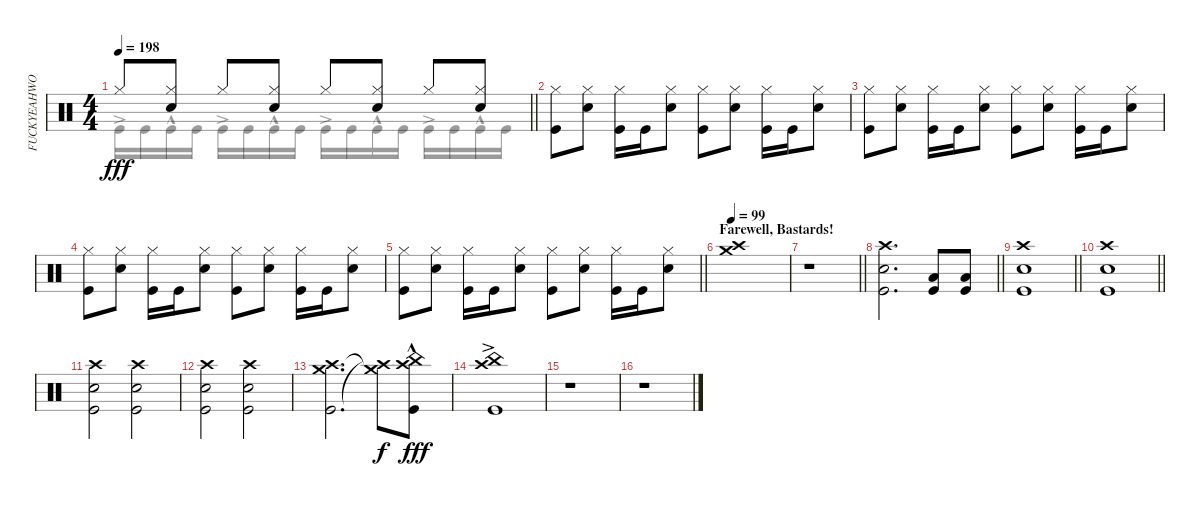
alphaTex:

\track ("FUCKYEAHWOOTDAVEMACKINTOSH!(Percussion)" "FUCKYEAHWO") {instrument percussion}
\staff {score}
\articulation defaults
\voice
\ts (4 4)
\tempo 198
\clef neutral
\barLineRight lightlight
\ks c "Hi-Hat (closed)".8{dy fff}
("Snare (hit) 2" "Hi-Hat (closed)").8 "Hi-Hat (closed)".8 ("Hi-Hat (closed)" "Snare (hit) 2").8 "Hi-Hat (closed)".8 ("Snare (hit) 2" "Hi-Hat (closed)").8 "Hi-Hat (closed)".8 ("Snare (hit) 2" "Hi-Hat (closed)").8 |
("Kick (hit)" "Hi-Hat (closed)").8 ("Snare (hit) 2" "Hi-Hat (closed)").8 ("Kick (hit)" "Hi-Hat (closed)").16 "Kick (hit)".16 ("Hi-Hat (closed)" "Snare (hit) 2").8 ("Kick (hit)" "Hi-Hat (closed)").8 ("Snare (hit) 2" "Hi-Hat (closed)").8 ("Kick (hit)" "Hi-Hat (closed)").16 "Kick (hit)".16 ("Snare (hit) 2" "Hi-Hat (closed)").8 |
("Kick (hit)" "Hi-Hat (closed)").8 ("Snare (hit) 2" "Hi-Hat (closed)").8 ("Kick (hit)" "Hi-Hat (closed)").16 "Kick (hit)".16 ("Hi-Hat (closed)" "Snare (hit) 2").8 ("Kick (hit)" "Hi-Hat (closed)").8 ("Snare (hit) 2" "Hi-Hat (closed)").8 ("Kick (hit)" "Hi-Hat (closed)").16 "Kick (hit)".16 ("Snare (hit) 2" "Hi-Hat (closed)").8 |
("Kick (hit)" "Hi-Hat (closed)").8 ("Snare (hit) 2" "Hi-Hat (closed)").8 ("Kick (hit)" "Hi-Hat (closed)").16 "Kick (hit)".16 ("Hi-Hat (closed)" "Snare (hit) 2").8 ("Kick (hit)" "Hi-Hat (closed)").8 ("Snare (hit) 2" "Hi-Hat (closed)").8 ("Kick (hit)" "Hi-Hat (closed)").16 "Kick (hit)".16 ("Snare (hit) 2" "Hi-Hat (closed)").8 |
\barLineRight lightlight
("Kick (hit)" "Hi-Hat (closed)").8 ("Snare (hit) 2" "Hi-Hat (closed)").8 ("Kick (hit)" "Hi-Hat (closed)").16 "Kick (hit)".16 ("Hi-Hat (closed)" "Snare (hit) 2").8 ("Kick (hit)" "Hi-Hat (closed)").8 ("Snare (hit) 2" "Hi-Hat (closed)").8 ("Kick (hit)" "Hi-Hat (closed)").16 "Kick (hit)".16 ("Snare (hit) 2" "Hi-Hat (closed)").8 |
\section ("" "Farewell, Bastards!")
\tempo 99
("Crash medium (hit)" "Crash high (hit)").1 |
\barLineRight lightlight
r.1 |
\barLineRight lightlight
("Snare (hit) 2" "Crash high (hit)" "Kick (hit)").2{d} ("Kick (hit)" "Low Floor Tom (hit)").8 ("Low Floor Tom (hit)" "Kick (hit)").8 |
\barLineRight lightlight
("Snare (hit) 2" "Kick (hit)" "Crash high (hit)").1 |
\barLineRight lightlight
("Kick (hit)" "Snare (hit) 2" "Crash high (hit)").1 |
("Snare (hit) 2" "Kick (hit)" "Crash high (hit)").2 ("Snare (hit) 2" "Kick (hit)" "Crash high (hit)").2 |
("Snare (hit) 2" "Kick (hit)" "Crash high (hit)").2 ("Snare (hit) 2" "Kick (hit)" "Crash high (hit)").2 |
("Kick (hit)" "Crash high (hit)" "Crash medium (hit)").2{d} ("Crash high (hit)"{t} "Crash medium (hit)"{t}).8{dy f} ("Kick (hit)" "China (hit)"{hac} "Crash high (hit)").8{dy fff} |
("China (hit)"{ac} "Crash high (hit)" "Kick (hit)").1 |
r.1 |
r.1
\voice
\clef neutral
\ottava regular
\simile none
\barLineRight lightlight
\ks c "Kick (hit)"{ac}.16{dy fff} "Kick (hit)".16 "Kick (hit)"{hac}.16 "Kick (hit)".16 "Kick (hit)"{ac}.16 "Kick (hit)".16 "Kick (hit)"{hac}.16 "Kick (hit)".16 "Kick (hit)"{ac}.16 "Kick (hit)".16 "Kick (hit)"{hac}.16 "Kick (hit)".16 "Kick (hit)"{ac}.16 "Kick (hit)".16 "Kick (hit)"{hac}.16 "Kick (hit)".16
|
|
|
|
\barLineRight lightlight
|
|
\barLineRight lightlight
|
\barLineRight lightlight
|
\barLineRight lightlight
|
\barLineRight lightlight
|
|
|
|
|
|
